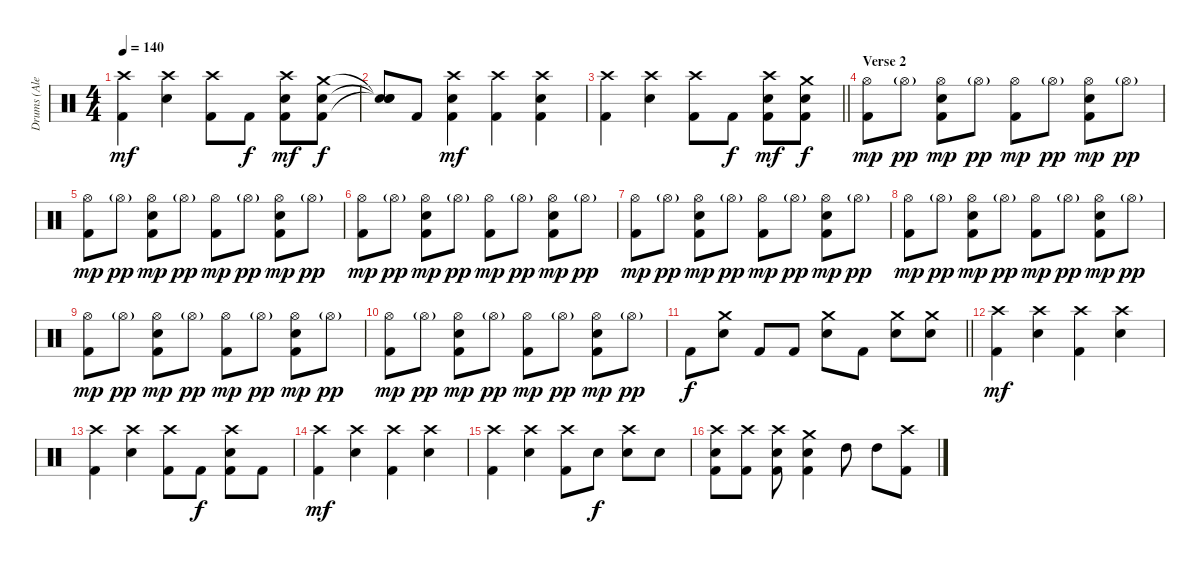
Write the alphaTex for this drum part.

\track ("Drums (Alex Van Halen)" "Drums (Ale") {instrument percussion}
\staff {score}
\articulation defaults
\ts (4 4)
\tempo 140
\clef neutral
\ks c
("Crash high (hit)" "Kick (hit) 2").4{dy mf} ("Crash high (hit)" "Electric Snare (hit)").4 ("Crash high (hit)" "Kick (hit) 2").8 "Kick (hit) 2".8{dy f} ("Crash high (hit)" "Snare (hit) 2" "Kick (hit) 2").8{dy mf} ("Crash medium (hit)" "Electric Snare (hit)" "Kick (hit) 2").8{dy f} |
("Snare (hit)"{t} "Snare (hit)"{t} "Snare (hit)"{t}).8 "Kick (hit) 2".8 ("Crash high (hit)" "Electric Snare (hit)" "Kick (hit) 2").4{dy mf} ("Crash high (hit)" "Kick (hit) 2").4 ("Crash high (hit)" "Electric Snare (hit)" "Kick (hit) 2").4 |
\barLineRight lightlight
("Crash high (hit)" "Kick (hit) 2").4 ("Crash high (hit)" "Electric Snare (hit)").4 ("Crash high (hit)" "Kick (hit) 2").8 "Kick (hit) 2".8{dy f} ("Crash high (hit)" "Snare (hit) 2" "Kick (hit) 2").8{dy mf} ("Crash medium (hit)" "Electric Snare (hit)" "Kick (hit) 2").8{dy f} |
\section ("" "Verse 2")
("Kick (hit) 2" "Hi-Hat (open)").8{dy mp} "Hi-Hat (open)"{g}.8{dy pp} ("Snare (hit) 2" "Kick (hit) 2" "Hi-Hat (open)").8{dy mp} "Hi-Hat (open)"{g}.8{dy pp} ("Kick (hit) 2" "Hi-Hat (open)").8{dy mp} "Hi-Hat (open)"{g}.8{dy pp} ("Snare (hit) 2" "Kick (hit) 2" "Hi-Hat (open)").8{dy mp} "Hi-Hat (open)"{g}.8{dy pp} |
("Kick (hit) 2" "Hi-Hat (open)").8{dy mp} "Hi-Hat (open)"{g}.8{dy pp} ("Snare (hit) 2" "Kick (hit) 2" "Hi-Hat (open)").8{dy mp} "Hi-Hat (open)"{g}.8{dy pp} ("Kick (hit) 2" "Hi-Hat (open)").8{dy mp} "Hi-Hat (open)"{g}.8{dy pp} ("Snare (hit) 2" "Kick (hit) 2" "Hi-Hat (open)").8{dy mp} "Hi-Hat (open)"{g}.8{dy pp} |
("Kick (hit) 2" "Hi-Hat (open)").8{dy mp} "Hi-Hat (open)"{g}.8{dy pp} ("Snare (hit) 2" "Kick (hit) 2" "Hi-Hat (open)").8{dy mp} "Hi-Hat (open)"{g}.8{dy pp} ("Kick (hit) 2" "Hi-Hat (open)").8{dy mp} "Hi-Hat (open)"{g}.8{dy pp} ("Snare (hit) 2" "Kick (hit) 2" "Hi-Hat (open)").8{dy mp} "Hi-Hat (open)"{g}.8{dy pp} |
("Kick (hit) 2" "Hi-Hat (open)").8{dy mp} "Hi-Hat (open)"{g}.8{dy pp} ("Snare (hit) 2" "Kick (hit) 2" "Hi-Hat (open)").8{dy mp} "Hi-Hat (open)"{g}.8{dy pp} ("Kick (hit) 2" "Hi-Hat (open)").8{dy mp} "Hi-Hat (open)"{g}.8{dy pp} ("Snare (hit) 2" "Kick (hit) 2" "Hi-Hat (open)").8{dy mp} "Hi-Hat (open)"{g}.8{dy pp} |
("Kick (hit) 2" "Hi-Hat (open)").8{dy mp} "Hi-Hat (open)"{g}.8{dy pp} ("Snare (hit) 2" "Kick (hit) 2" "Hi-Hat (open)").8{dy mp} "Hi-Hat (open)"{g}.8{dy pp} ("Kick (hit) 2" "Hi-Hat (open)").8{dy mp} "Hi-Hat (open)"{g}.8{dy pp} ("Snare (hit) 2" "Kick (hit) 2" "Hi-Hat (open)").8{dy mp} "Hi-Hat (open)"{g}.8{dy pp} |
("Kick (hit) 2" "Hi-Hat (open)").8{dy mp} "Hi-Hat (open)"{g}.8{dy pp} ("Snare (hit) 2" "Kick (hit) 2" "Hi-Hat (open)").8{dy mp} "Hi-Hat (open)"{g}.8{dy pp} ("Kick (hit) 2" "Hi-Hat (open)").8{dy mp} "Hi-Hat (open)"{g}.8{dy pp} ("Snare (hit) 2" "Kick (hit) 2" "Hi-Hat (open)").8{dy mp} "Hi-Hat (open)"{g}.8{dy pp} |
("Kick (hit) 2" "Hi-Hat (open)").8{dy mp} "Hi-Hat (open)"{g}.8{dy pp} ("Snare (hit) 2" "Kick (hit) 2" "Hi-Hat (open)").8{dy mp} "Hi-Hat (open)"{g}.8{dy pp} ("Kick (hit) 2" "Hi-Hat (open)").8{dy mp} "Hi-Hat (open)"{g}.8{dy pp} ("Snare (hit) 2" "Kick (hit) 2" "Hi-Hat (open)").8{dy mp} "Hi-Hat (open)"{g}.8{dy pp} |
\barLineRight lightlight "Kick (hit) 2".8{dy f}
("Crash medium (hit)" "Snare (hit) 2").8 "Kick (hit) 2".8 "Kick (hit) 2".8 ("Crash medium (hit)" "Snare (hit) 2").8 "Kick (hit) 2".8 ("Crash medium (hit)" "Snare (hit) 2").8 ("Crash medium (hit)" "Snare (hit) 2").8 |
("Crash high (hit)" "Kick (hit) 2").4{dy mf} ("Crash high (hit)" "Snare (hit) 2").4 ("Crash high (hit)" "Kick (hit) 2").4 ("Crash high (hit)" "Snare (hit) 2").4 |
("Crash high (hit)" "Kick (hit) 2").4 ("Crash high (hit)" "Snare (hit) 2").4 ("Crash high (hit)" "Kick (hit) 2").8 "Kick (hit) 2".8{dy f} ("Crash high (hit)" "Snare (hit) 2" "Kick (hit) 2").8 "Kick (hit) 2".8 |
("Crash high (hit)" "Kick (hit) 2").4{dy mf} ("Crash high (hit)" "Snare (hit) 2").4 ("Crash high (hit)" "Kick (hit) 2").4 ("Crash high (hit)" "Snare (hit) 2").4 |
("Crash high (hit)" "Kick (hit) 2").4 ("Crash high (hit)" "Snare (hit) 2").4 ("Crash high (hit)" "Kick (hit) 2").8 "Snare (hit) 2".8{dy f} ("Crash high (hit)" "Snare (hit) 2").8 "Snare (hit) 2".8 |
("Crash high (hit)" "Snare (hit) 2" "Kick (hit) 2").8 ("Crash high (hit)" "Kick (hit) 2").8 ("Crash high (hit)" "Snare (hit) 2" "Kick (hit) 2").8 ("Crash medium (hit)" "Snare (hit) 2" "Kick (hit) 2").4 "High Tom (hit)".8 "High Tom (hit)".8 ("Crash high (hit)" "Kick (hit) 2").8
